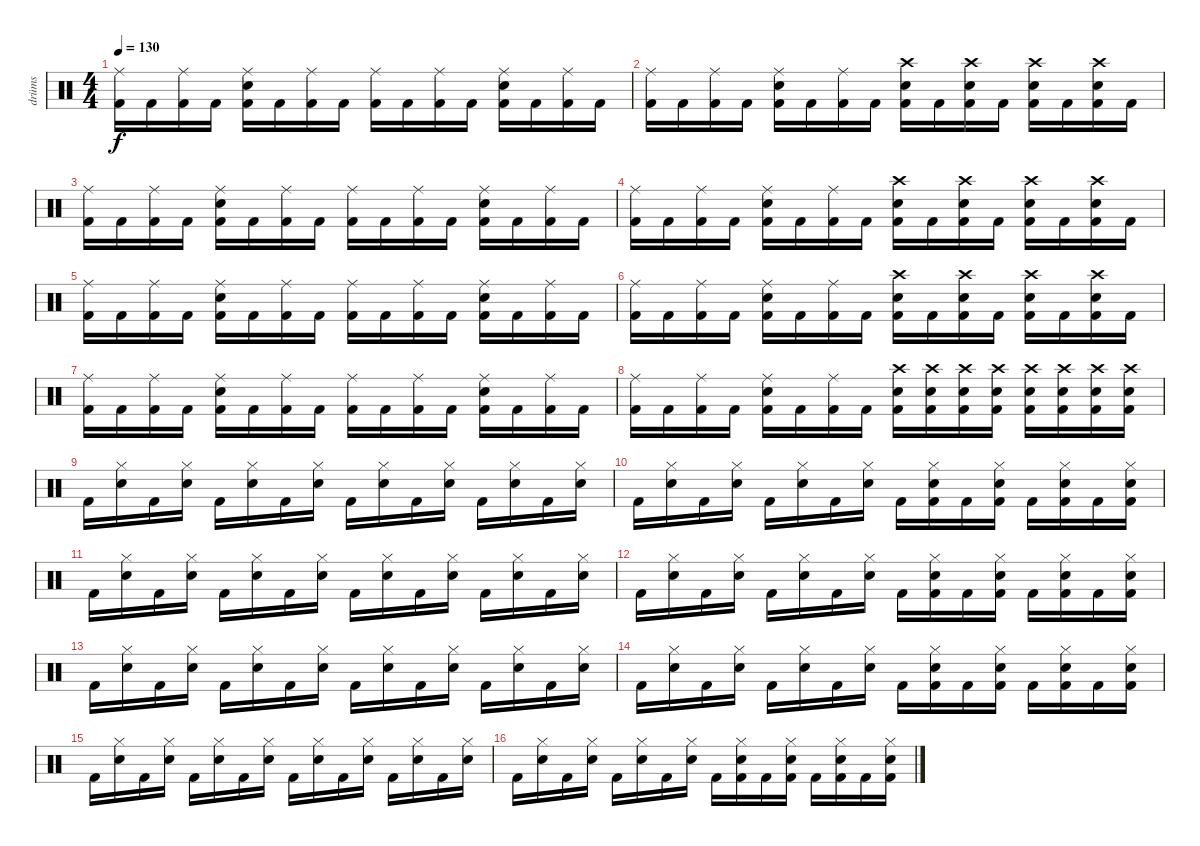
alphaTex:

\track ("drüms" "drüms") {instrument percussion}
\staff {score}
\articulation defaults
\ts (4 4)
\tempo 130
\clef neutral
\ks c
("Ride (middle)" "Kick (hit) 2").16{dy f} "Kick (hit) 2".16 ("Ride (middle)" "Kick (hit) 2").16 "Kick (hit) 2".16 ("Electric Snare (hit)" "Ride (middle)" "Kick (hit) 2").16 "Kick (hit) 2".16 ("Ride (middle)" "Kick (hit) 2").16 "Kick (hit) 2".16 ("Ride (middle)" "Kick (hit) 2").16 "Kick (hit) 2".16 ("Ride (middle)" "Kick (hit) 2").16 "Kick (hit) 2".16 ("Electric Snare (hit)" "Ride (middle)" "Kick (hit) 2").16 "Kick (hit) 2".16 ("Ride (middle)" "Kick (hit) 2").16 "Kick (hit) 2".16 |
("Ride (middle)" "Kick (hit) 2").16 "Kick (hit) 2".16 ("Ride (middle)" "Kick (hit) 2").16 "Kick (hit) 2".16 ("Electric Snare (hit)" "Ride (middle)" "Kick (hit) 2").16 "Kick (hit) 2".16 ("Ride (middle)" "Kick (hit) 2").16 "Kick (hit) 2".16 ("Electric Snare (hit)" "Crash high (hit)" "Kick (hit) 2").16 "Kick (hit) 2".16 ("Electric Snare (hit)" "Crash high (hit)" "Kick (hit) 2").16 "Kick (hit) 2".16 ("Electric Snare (hit)" "Crash high (hit)" "Kick (hit) 2").16 "Kick (hit) 2".16 ("Electric Snare (hit)" "Crash high (hit)" "Kick (hit) 2").16 "Kick (hit) 2".16 |
("Ride (middle)" "Kick (hit) 2").16 "Kick (hit) 2".16 ("Ride (middle)" "Kick (hit) 2").16 "Kick (hit) 2".16 ("Electric Snare (hit)" "Ride (middle)" "Kick (hit) 2").16 "Kick (hit) 2".16 ("Ride (middle)" "Kick (hit) 2").16 "Kick (hit) 2".16 ("Ride (middle)" "Kick (hit) 2").16 "Kick (hit) 2".16 ("Ride (middle)" "Kick (hit) 2").16 "Kick (hit) 2".16 ("Electric Snare (hit)" "Ride (middle)" "Kick (hit) 2").16 "Kick (hit) 2".16 ("Ride (middle)" "Kick (hit) 2").16 "Kick (hit) 2".16 |
("Ride (middle)" "Kick (hit) 2").16 "Kick (hit) 2".16 ("Ride (middle)" "Kick (hit) 2").16 "Kick (hit) 2".16 ("Electric Snare (hit)" "Ride (middle)" "Kick (hit) 2").16 "Kick (hit) 2".16 ("Ride (middle)" "Kick (hit) 2").16 "Kick (hit) 2".16 ("Electric Snare (hit)" "Crash high (hit)" "Kick (hit) 2").16 "Kick (hit) 2".16 ("Electric Snare (hit)" "Crash high (hit)" "Kick (hit) 2").16 "Kick (hit) 2".16 ("Electric Snare (hit)" "Crash high (hit)" "Kick (hit) 2").16 "Kick (hit) 2".16 ("Electric Snare (hit)" "Crash high (hit)" "Kick (hit) 2").16 "Kick (hit) 2".16 |
("Ride (middle)" "Kick (hit) 2").16 "Kick (hit) 2".16 ("Ride (middle)" "Kick (hit) 2").16 "Kick (hit) 2".16 ("Electric Snare (hit)" "Ride (middle)" "Kick (hit) 2").16 "Kick (hit) 2".16 ("Ride (middle)" "Kick (hit) 2").16 "Kick (hit) 2".16 ("Ride (middle)" "Kick (hit) 2").16 "Kick (hit) 2".16 ("Ride (middle)" "Kick (hit) 2").16 "Kick (hit) 2".16 ("Electric Snare (hit)" "Ride (middle)" "Kick (hit) 2").16 "Kick (hit) 2".16 ("Ride (middle)" "Kick (hit) 2").16 "Kick (hit) 2".16 |
("Ride (middle)" "Kick (hit) 2").16 "Kick (hit) 2".16 ("Ride (middle)" "Kick (hit) 2").16 "Kick (hit) 2".16 ("Electric Snare (hit)" "Ride (middle)" "Kick (hit) 2").16 "Kick (hit) 2".16 ("Ride (middle)" "Kick (hit) 2").16 "Kick (hit) 2".16 ("Electric Snare (hit)" "Crash high (hit)" "Kick (hit) 2").16 "Kick (hit) 2".16 ("Electric Snare (hit)" "Crash high (hit)" "Kick (hit) 2").16 "Kick (hit) 2".16 ("Electric Snare (hit)" "Crash high (hit)" "Kick (hit) 2").16 "Kick (hit) 2".16 ("Electric Snare (hit)" "Crash high (hit)" "Kick (hit) 2").16 "Kick (hit) 2".16 |
("Ride (middle)" "Kick (hit) 2").16 "Kick (hit) 2".16 ("Ride (middle)" "Kick (hit) 2").16 "Kick (hit) 2".16 ("Electric Snare (hit)" "Ride (middle)" "Kick (hit) 2").16 "Kick (hit) 2".16 ("Ride (middle)" "Kick (hit) 2").16 "Kick (hit) 2".16 ("Ride (middle)" "Kick (hit) 2").16 "Kick (hit) 2".16 ("Ride (middle)" "Kick (hit) 2").16 "Kick (hit) 2".16 ("Electric Snare (hit)" "Ride (middle)" "Kick (hit) 2").16 "Kick (hit) 2".16 ("Ride (middle)" "Kick (hit) 2").16 "Kick (hit) 2".16 |
("Ride (middle)" "Kick (hit) 2").16 "Kick (hit) 2".16 ("Ride (middle)" "Kick (hit) 2").16 "Kick (hit) 2".16 ("Electric Snare (hit)" "Ride (middle)" "Kick (hit) 2").16 "Kick (hit) 2".16 ("Ride (middle)" "Kick (hit) 2").16 "Kick (hit) 2".16 ("Electric Snare (hit)" "Crash high (hit)" "Kick (hit) 2").16 ("Electric Snare (hit)" "Crash high (hit)" "Kick (hit) 2").16 ("Electric Snare (hit)" "Crash high (hit)" "Kick (hit) 2").16 ("Electric Snare (hit)" "Crash high (hit)" "Kick (hit) 2").16 ("Electric Snare (hit)" "Crash high (hit)" "Kick (hit) 2").16 ("Electric Snare (hit)" "Crash high (hit)" "Kick (hit) 2").16 ("Electric Snare (hit)" "Crash high (hit)" "Kick (hit) 2").16 ("Electric Snare (hit)" "Crash high (hit)" "Kick (hit) 2").16 |
"Kick (hit) 2".16 ("Electric Snare (hit)" "Hi-Hat (closed)").16 "Kick (hit) 2".16 ("Electric Snare (hit)" "Hi-Hat (closed)").16 "Kick (hit) 2".16 ("Electric Snare (hit)" "Hi-Hat (closed)").16 "Kick (hit) 2".16 ("Electric Snare (hit)" "Hi-Hat (closed)").16 "Kick (hit) 2".16 ("Electric Snare (hit)" "Hi-Hat (closed)").16 "Kick (hit) 2".16 ("Electric Snare (hit)" "Hi-Hat (closed)").16 "Kick (hit) 2".16 ("Electric Snare (hit)" "Hi-Hat (closed)").16 "Kick (hit) 2".16 ("Electric Snare (hit)" "Hi-Hat (closed)").16 |
"Kick (hit) 2".16 ("Electric Snare (hit)" "Hi-Hat (closed)").16 "Kick (hit) 2".16 ("Electric Snare (hit)" "Hi-Hat (closed)").16 "Kick (hit) 2".16 ("Electric Snare (hit)" "Hi-Hat (closed)").16 "Kick (hit) 2".16 ("Electric Snare (hit)" "Hi-Hat (closed)").16 "Kick (hit) 2".16 ("Electric Snare (hit)" "Hi-Hat (closed)" "Kick (hit) 2").16 "Kick (hit) 2".16 ("Electric Snare (hit)" "Hi-Hat (closed)" "Kick (hit) 2").16 "Kick (hit) 2".16 ("Electric Snare (hit)" "Hi-Hat (closed)" "Kick (hit) 2").16 "Kick (hit) 2".16 ("Electric Snare (hit)" "Hi-Hat (closed)" "Kick (hit) 2").16 |
"Kick (hit) 2".16 ("Electric Snare (hit)" "Hi-Hat (closed)").16 "Kick (hit) 2".16 ("Electric Snare (hit)" "Hi-Hat (closed)").16 "Kick (hit) 2".16 ("Electric Snare (hit)" "Hi-Hat (closed)").16 "Kick (hit) 2".16 ("Electric Snare (hit)" "Hi-Hat (closed)").16 "Kick (hit) 2".16 ("Electric Snare (hit)" "Hi-Hat (closed)").16 "Kick (hit) 2".16 ("Electric Snare (hit)" "Hi-Hat (closed)").16 "Kick (hit) 2".16 ("Electric Snare (hit)" "Hi-Hat (closed)").16 "Kick (hit) 2".16 ("Electric Snare (hit)" "Hi-Hat (closed)").16 |
"Kick (hit) 2".16 ("Electric Snare (hit)" "Hi-Hat (closed)").16 "Kick (hit) 2".16 ("Electric Snare (hit)" "Hi-Hat (closed)").16 "Kick (hit) 2".16 ("Electric Snare (hit)" "Hi-Hat (closed)").16 "Kick (hit) 2".16 ("Electric Snare (hit)" "Hi-Hat (closed)").16 "Kick (hit) 2".16 ("Electric Snare (hit)" "Hi-Hat (closed)" "Kick (hit) 2").16 "Kick (hit) 2".16 ("Electric Snare (hit)" "Hi-Hat (closed)" "Kick (hit) 2").16 "Kick (hit) 2".16 ("Electric Snare (hit)" "Hi-Hat (closed)" "Kick (hit) 2").16 "Kick (hit) 2".16 ("Electric Snare (hit)" "Hi-Hat (closed)" "Kick (hit) 2").16 |
"Kick (hit) 2".16 ("Electric Snare (hit)" "Hi-Hat (closed)").16 "Kick (hit) 2".16 ("Electric Snare (hit)" "Hi-Hat (closed)").16 "Kick (hit) 2".16 ("Electric Snare (hit)" "Hi-Hat (closed)").16 "Kick (hit) 2".16 ("Electric Snare (hit)" "Hi-Hat (closed)").16 "Kick (hit) 2".16 ("Electric Snare (hit)" "Hi-Hat (closed)").16 "Kick (hit) 2".16 ("Electric Snare (hit)" "Hi-Hat (closed)").16 "Kick (hit) 2".16 ("Electric Snare (hit)" "Hi-Hat (closed)").16 "Kick (hit) 2".16 ("Electric Snare (hit)" "Hi-Hat (closed)").16 |
"Kick (hit) 2".16 ("Electric Snare (hit)" "Hi-Hat (closed)").16 "Kick (hit) 2".16 ("Electric Snare (hit)" "Hi-Hat (closed)").16 "Kick (hit) 2".16 ("Electric Snare (hit)" "Hi-Hat (closed)").16 "Kick (hit) 2".16 ("Electric Snare (hit)" "Hi-Hat (closed)").16 "Kick (hit) 2".16 ("Electric Snare (hit)" "Hi-Hat (closed)" "Kick (hit) 2").16 "Kick (hit) 2".16 ("Electric Snare (hit)" "Hi-Hat (closed)" "Kick (hit) 2").16 "Kick (hit) 2".16 ("Electric Snare (hit)" "Hi-Hat (closed)" "Kick (hit) 2").16 "Kick (hit) 2".16 ("Electric Snare (hit)" "Hi-Hat (closed)" "Kick (hit) 2").16 |
"Kick (hit) 2".16 ("Electric Snare (hit)" "Hi-Hat (closed)").16 "Kick (hit) 2".16 ("Electric Snare (hit)" "Hi-Hat (closed)").16 "Kick (hit) 2".16 ("Electric Snare (hit)" "Hi-Hat (closed)").16 "Kick (hit) 2".16 ("Electric Snare (hit)" "Hi-Hat (closed)").16 "Kick (hit) 2".16 ("Electric Snare (hit)" "Hi-Hat (closed)").16 "Kick (hit) 2".16 ("Electric Snare (hit)" "Hi-Hat (closed)").16 "Kick (hit) 2".16 ("Electric Snare (hit)" "Hi-Hat (closed)").16 "Kick (hit) 2".16 ("Electric Snare (hit)" "Hi-Hat (closed)").16 |
"Kick (hit) 2".16 ("Electric Snare (hit)" "Hi-Hat (closed)").16 "Kick (hit) 2".16 ("Electric Snare (hit)" "Hi-Hat (closed)").16 "Kick (hit) 2".16 ("Electric Snare (hit)" "Hi-Hat (closed)").16 "Kick (hit) 2".16 ("Electric Snare (hit)" "Hi-Hat (closed)").16 "Kick (hit) 2".16 ("Electric Snare (hit)" "Hi-Hat (closed)" "Kick (hit) 2").16 "Kick (hit) 2".16 ("Electric Snare (hit)" "Hi-Hat (closed)" "Kick (hit) 2").16 "Kick (hit) 2".16 ("Electric Snare (hit)" "Hi-Hat (closed)" "Kick (hit) 2").16 "Kick (hit) 2".16 ("Electric Snare (hit)" "Hi-Hat (closed)" "Kick (hit) 2").16
